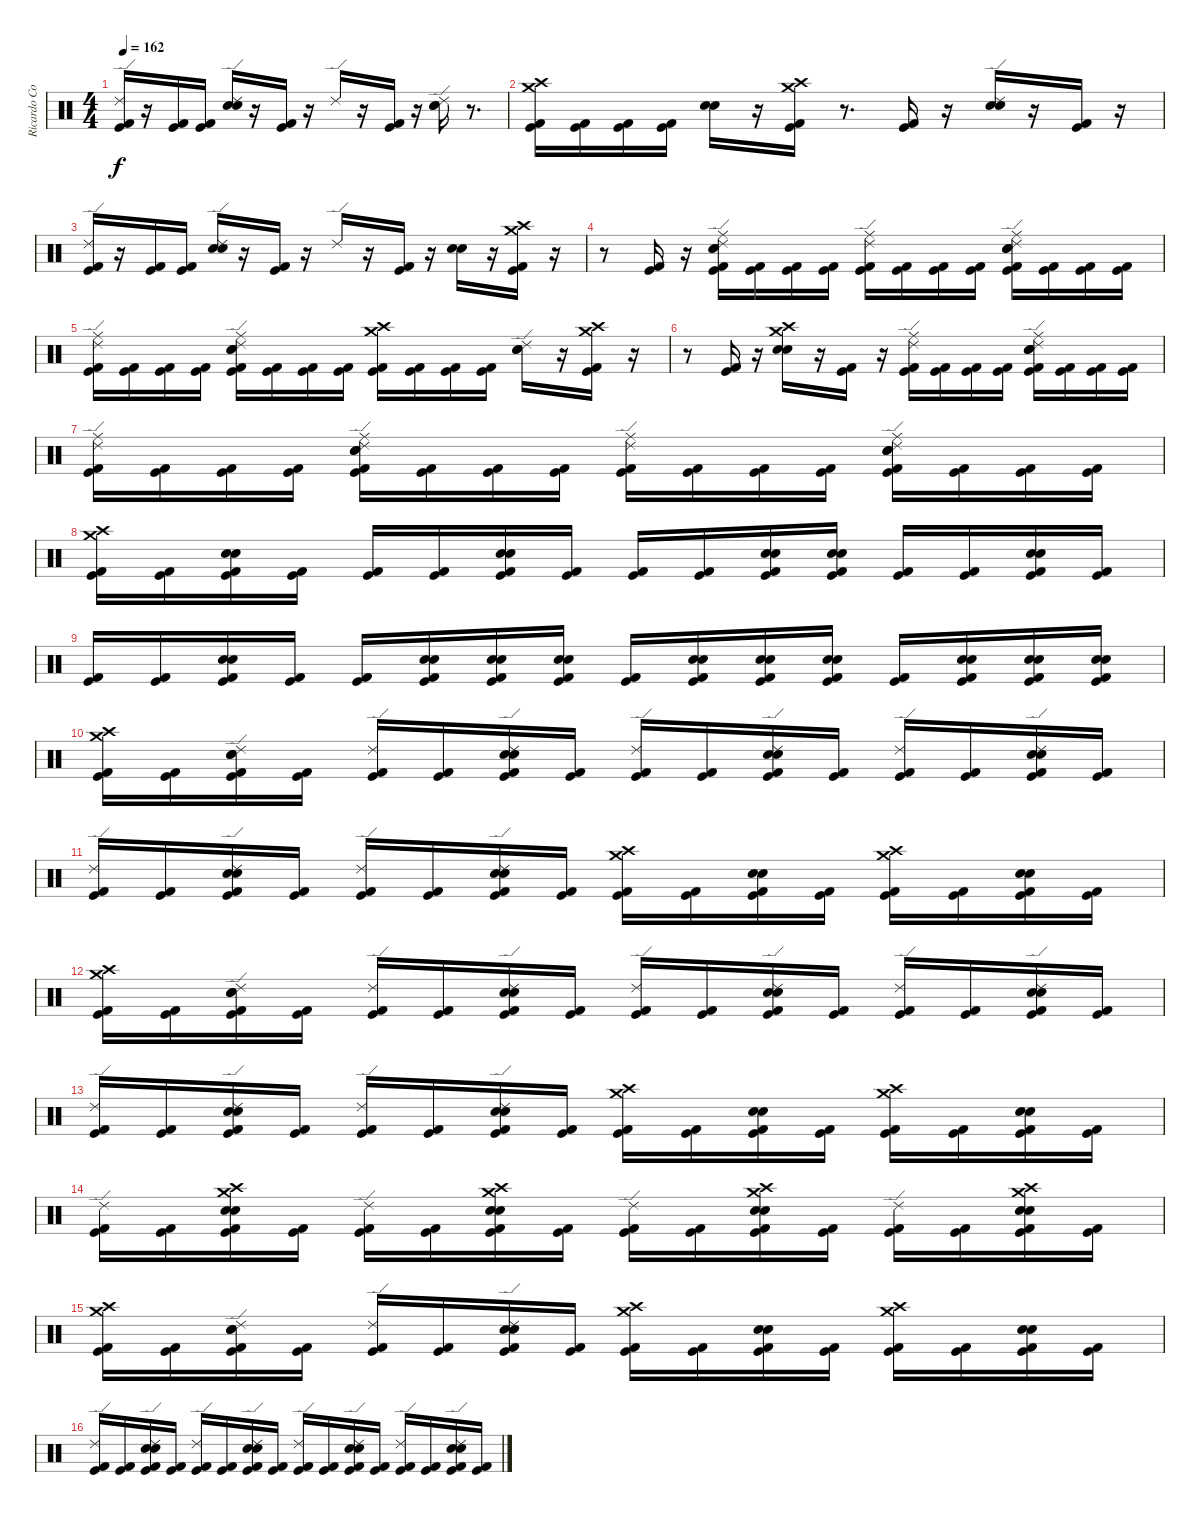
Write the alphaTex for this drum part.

\track ("Ricardo Confessori" "Ricardo Co") {instrument percussion}
\staff {score}
\articulation defaults
\ts (4 4)
\tempo 162
\clef neutral
\ks c
("Ride (edge) 2" "Kick (hit) 2" "Kick (hit)").16{dy f} r.16 ("Kick (hit) 2" "Kick (hit)").16 ("Kick (hit) 2" "Kick (hit)").16 ("Ride (edge) 2" "Electric Snare (hit)" "Snare (hit) 2").16 r.16 ("Kick (hit) 2" "Kick (hit)").16 r.16 "Ride (edge) 2".16 r.16 ("Kick (hit) 2" "Kick (hit)").16 r.16 ("Ride (edge) 2" "Electric Snare (hit)" "Snare (hit) 2").16 r.8{d} |
("Crash high (hit)" "Crash medium (hit)" "Kick (hit) 2" "Kick (hit)").16 ("Kick (hit) 2" "Kick (hit)").16 ("Kick (hit) 2" "Kick (hit)").16 ("Kick (hit) 2" "Kick (hit)").16 ("Electric Snare (hit)" "Snare (hit) 2").16 r.16 ("Crash high (hit)" "Crash medium (hit)" "Kick (hit) 2" "Kick (hit)").16 r.8{d} ("Kick (hit) 2" "Kick (hit)").16 r.16 ("Ride (edge) 2" "Snare (hit) 2" "Electric Snare (hit)").16 r.16 ("Kick (hit) 2" "Kick (hit)").16 r.16 |
("Ride (edge) 2" "Kick (hit) 2" "Kick (hit)").16 r.16 ("Kick (hit) 2" "Kick (hit)").16 ("Kick (hit) 2" "Kick (hit)").16 ("Ride (edge) 2" "Electric Snare (hit)" "Snare (hit) 2").16 r.16 ("Kick (hit)" "Kick (hit) 2").16 r.16 "Ride (edge) 2".16 r.16 ("Kick (hit) 2" "Kick (hit)").16 r.16 ("Electric Snare (hit)" "Snare (hit) 2").16 r.16 ("Crash high (hit)" "Crash medium (hit)" "Kick (hit) 2" "Kick (hit)").16 r.16 |
r.8 ("Kick (hit) 2" "Kick (hit)").16 r.16 ("Ride (middle)" "Ride (edge) 2" "Snare (hit) 2" "Electric Snare (hit)" "Kick (hit) 2" "Kick (hit)").16 ("Kick (hit) 2" "Kick (hit)").16 ("Kick (hit) 2" "Kick (hit)").16 ("Kick (hit) 2" "Kick (hit)").16 ("Ride (middle)" "Ride (edge) 2" "Kick (hit) 2" "Kick (hit)").16 ("Kick (hit) 2" "Kick (hit)").16 ("Kick (hit) 2" "Kick (hit)").16 ("Kick (hit) 2" "Kick (hit)").16 ("Ride (middle)" "Electric Snare (hit)" "Snare (hit) 2" "Ride (edge) 2" "Kick (hit) 2" "Kick (hit)").16 ("Kick (hit) 2" "Kick (hit)").16 ("Kick (hit) 2" "Kick (hit)").16 ("Kick (hit) 2" "Kick (hit)").16 |
("Ride (middle)" "Ride (edge) 2" "Kick (hit) 2" "Kick (hit)").16 ("Kick (hit) 2" "Kick (hit)").16 ("Kick (hit) 2" "Kick (hit)").16 ("Kick (hit) 2" "Kick (hit)").16 ("Ride (middle)" "Electric Snare (hit)" "Snare (hit) 2" "Ride (edge) 2" "Kick (hit) 2" "Kick (hit)").16 ("Kick (hit) 2" "Kick (hit)").16 ("Kick (hit) 2" "Kick (hit)").16 ("Kick (hit) 2" "Kick (hit)").16 ("Crash medium (hit)" "Crash high (hit)" "Kick (hit) 2" "Kick (hit)").16 ("Kick (hit) 2" "Kick (hit)").16 ("Kick (hit) 2" "Kick (hit)").16 ("Kick (hit) 2" "Kick (hit)").16 ("Electric Snare (hit)" "Snare (hit) 2" "Ride (edge) 2").16 r.16 ("Crash high (hit)" "Crash medium (hit)" "Kick (hit) 2" "Kick (hit)").16 r.16 |
r.8 ("Kick (hit) 2" "Kick (hit)").16 r.16 ("Crash high (hit)" "Crash medium (hit)" "Snare (hit) 2" "Electric Snare (hit)").16 r.16 ("Kick (hit) 2" "Kick (hit)").16 r.16 ("Ride (middle)" "Ride (edge) 2" "Kick (hit) 2" "Kick (hit)").16 ("Kick (hit) 2" "Kick (hit)").16 ("Kick (hit) 2" "Kick (hit)").16 ("Kick (hit) 2" "Kick (hit)").16 ("Ride (middle)" "Electric Snare (hit)" "Snare (hit) 2" "Ride (edge) 2" "Kick (hit) 2" "Kick (hit)").16 ("Kick (hit) 2" "Kick (hit)").16 ("Kick (hit) 2" "Kick (hit)").16 ("Kick (hit) 2" "Kick (hit)").16 |
("Ride (middle)" "Ride (edge) 2" "Kick (hit) 2" "Kick (hit)").16 ("Kick (hit) 2" "Kick (hit)").16 ("Kick (hit) 2" "Kick (hit)").16 ("Kick (hit) 2" "Kick (hit)").16 ("Ride (middle)" "Electric Snare (hit)" "Snare (hit) 2" "Ride (edge) 2" "Kick (hit) 2" "Kick (hit)").16 ("Kick (hit) 2" "Kick (hit)").16 ("Kick (hit) 2" "Kick (hit)").16 ("Kick (hit) 2" "Kick (hit)").16 ("Ride (middle)" "Ride (edge) 2" "Kick (hit) 2" "Kick (hit)").16 ("Kick (hit) 2" "Kick (hit)").16 ("Kick (hit) 2" "Kick (hit)").16 ("Kick (hit) 2" "Kick (hit)").16 ("Ride (middle)" "Electric Snare (hit)" "Snare (hit) 2" "Ride (edge) 2" "Kick (hit) 2" "Kick (hit)").16 ("Kick (hit) 2" "Kick (hit)").16 ("Kick (hit) 2" "Kick (hit)").16 ("Kick (hit) 2" "Kick (hit)").16 |
("Crash medium (hit)" "Crash high (hit)" "Kick (hit) 2" "Kick (hit)").16 ("Kick (hit) 2" "Kick (hit)").16 ("Electric Snare (hit)" "Snare (hit) 2" "Kick (hit) 2" "Kick (hit)").16 ("Kick (hit) 2" "Kick (hit)").16 ("Kick (hit) 2" "Kick (hit)").16 ("Kick (hit) 2" "Kick (hit)").16 ("Electric Snare (hit)" "Snare (hit) 2" "Kick (hit) 2" "Kick (hit)").16 ("Kick (hit) 2" "Kick (hit)").16 ("Kick (hit) 2" "Kick (hit)").16 ("Kick (hit) 2" "Kick (hit)").16 ("Electric Snare (hit)" "Snare (hit) 2" "Kick (hit) 2" "Kick (hit)").16 ("Electric Snare (hit)" "Snare (hit) 2" "Kick (hit) 2" "Kick (hit)").16 ("Kick (hit) 2" "Kick (hit)").16 ("Kick (hit) 2" "Kick (hit)").16 ("Electric Snare (hit)" "Snare (hit) 2" "Kick (hit) 2" "Kick (hit)").16 ("Kick (hit) 2" "Kick (hit)").16 |
("Kick (hit) 2" "Kick (hit)").16 ("Kick (hit) 2" "Kick (hit)").16 ("Electric Snare (hit)" "Snare (hit) 2" "Kick (hit) 2" "Kick (hit)").16 ("Kick (hit) 2" "Kick (hit)").16 ("Kick (hit) 2" "Kick (hit)").16 ("Electric Snare (hit)" "Snare (hit) 2" "Kick (hit) 2" "Kick (hit)").16 ("Electric Snare (hit)" "Snare (hit) 2" "Kick (hit) 2" "Kick (hit)").16 ("Electric Snare (hit)" "Snare (hit) 2" "Kick (hit) 2" "Kick (hit)").16 ("Kick (hit) 2" "Kick (hit)").16 ("Snare (hit) 2" "Electric Snare (hit)" "Kick (hit) 2" "Kick (hit)").16 ("Electric Snare (hit)" "Snare (hit) 2" "Kick (hit) 2" "Kick (hit)").16 ("Electric Snare (hit)" "Snare (hit) 2" "Kick (hit) 2" "Kick (hit)").16 ("Kick (hit) 2" "Kick (hit)").16 ("Electric Snare (hit)" "Snare (hit) 2" "Kick (hit) 2" "Kick (hit)").16 ("Electric Snare (hit)" "Snare (hit) 2" "Kick (hit) 2" "Kick (hit)").16 ("Electric Snare (hit)" "Snare (hit) 2" "Kick (hit) 2" "Kick (hit)").16 |
("Crash high (hit)" "Crash medium (hit)" "Kick (hit) 2" "Kick (hit)").16 ("Kick (hit) 2" "Kick (hit)").16 ("Ride (edge) 2" "Electric Snare (hit)" "Snare (hit) 2" "Kick (hit) 2" "Kick (hit)").16 ("Kick (hit) 2" "Kick (hit)").16 ("Ride (edge) 2" "Kick (hit) 2" "Kick (hit)").16 ("Kick (hit) 2" "Kick (hit)").16 ("Ride (edge) 2" "Electric Snare (hit)" "Snare (hit) 2" "Kick (hit) 2" "Kick (hit)").16 ("Kick (hit) 2" "Kick (hit)").16 ("Ride (edge) 2" "Kick (hit) 2" "Kick (hit)").16 ("Kick (hit) 2" "Kick (hit)").16 ("Ride (edge) 2" "Electric Snare (hit)" "Snare (hit) 2" "Kick (hit) 2" "Kick (hit)").16 ("Kick (hit) 2" "Kick (hit)").16 ("Ride (edge) 2" "Kick (hit) 2" "Kick (hit)").16 ("Kick (hit) 2" "Kick (hit)").16 ("Ride (edge) 2" "Electric Snare (hit)" "Snare (hit) 2" "Kick (hit) 2" "Kick (hit)").16 ("Kick (hit) 2" "Kick (hit)").16 |
("Ride (edge) 2" "Kick (hit) 2" "Kick (hit)").16 ("Kick (hit) 2" "Kick (hit)").16 ("Ride (edge) 2" "Electric Snare (hit)" "Snare (hit) 2" "Kick (hit) 2" "Kick (hit)").16 ("Kick (hit) 2" "Kick (hit)").16 ("Ride (edge) 2" "Kick (hit) 2" "Kick (hit)").16 ("Kick (hit) 2" "Kick (hit)").16 ("Ride (edge) 2" "Electric Snare (hit)" "Snare (hit) 2" "Kick (hit) 2" "Kick (hit)").16 ("Kick (hit) 2" "Kick (hit)").16 ("Crash high (hit)" "Crash medium (hit)" "Kick (hit) 2" "Kick (hit)").16 ("Kick (hit) 2" "Kick (hit)").16 ("Electric Snare (hit)" "Snare (hit) 2" "Kick (hit) 2" "Kick (hit)").16 ("Kick (hit) 2" "Kick (hit)").16 ("Crash high (hit)" "Crash medium (hit)" "Kick (hit) 2" "Kick (hit)").16 ("Kick (hit) 2" "Kick (hit)").16 ("Snare (hit) 2" "Electric Snare (hit)" "Kick (hit) 2" "Kick (hit)").16 ("Kick (hit) 2" "Kick (hit)").16 |
("Crash medium (hit)" "Crash high (hit)" "Kick (hit) 2" "Kick (hit)").16 ("Kick (hit) 2" "Kick (hit)").16 ("Ride (edge) 2" "Electric Snare (hit)" "Snare (hit) 2" "Kick (hit) 2" "Kick (hit)").16 ("Kick (hit) 2" "Kick (hit)").16 ("Ride (edge) 2" "Kick (hit) 2" "Kick (hit)").16 ("Kick (hit) 2" "Kick (hit)").16 ("Ride (edge) 2" "Electric Snare (hit)" "Snare (hit) 2" "Kick (hit) 2" "Kick (hit)").16 ("Kick (hit) 2" "Kick (hit)").16 ("Ride (edge) 2" "Kick (hit) 2" "Kick (hit)").16 ("Kick (hit) 2" "Kick (hit)").16 ("Ride (edge) 2" "Electric Snare (hit)" "Snare (hit) 2" "Kick (hit) 2" "Kick (hit)").16 ("Kick (hit) 2" "Kick (hit)").16 ("Ride (edge) 2" "Kick (hit) 2" "Kick (hit)").16 ("Kick (hit) 2" "Kick (hit)").16 ("Ride (edge) 2" "Electric Snare (hit)" "Snare (hit) 2" "Kick (hit) 2" "Kick (hit)").16 ("Kick (hit) 2" "Kick (hit)").16 |
("Ride (edge) 2" "Kick (hit) 2" "Kick (hit)").16 ("Kick (hit) 2" "Kick (hit)").16 ("Ride (edge) 2" "Electric Snare (hit)" "Snare (hit) 2" "Kick (hit) 2" "Kick (hit)").16 ("Kick (hit) 2" "Kick (hit)").16 ("Ride (edge) 2" "Kick (hit) 2" "Kick (hit)").16 ("Kick (hit) 2" "Kick (hit)").16 ("Ride (edge) 2" "Electric Snare (hit)" "Snare (hit) 2" "Kick (hit) 2" "Kick (hit)").16 ("Kick (hit) 2" "Kick (hit)").16 ("Crash high (hit)" "Crash medium (hit)" "Kick (hit) 2" "Kick (hit)").16 ("Kick (hit) 2" "Kick (hit)").16 ("Electric Snare (hit)" "Snare (hit) 2" "Kick (hit) 2" "Kick (hit)").16 ("Kick (hit) 2" "Kick (hit)").16 ("Crash high (hit)" "Crash medium (hit)" "Kick (hit) 2" "Kick (hit)").16 ("Kick (hit) 2" "Kick (hit)").16 ("Electric Snare (hit)" "Snare (hit) 2" "Kick (hit) 2" "Kick (hit)").16 ("Kick (hit) 2" "Kick (hit)").16 |
("Ride (edge) 2" "Kick (hit) 2" "Kick (hit)").16 ("Kick (hit) 2" "Kick (hit)").16 ("Crash high (hit)" "Crash medium (hit)" "Electric Snare (hit)" "Snare (hit) 2" "Kick (hit) 2" "Kick (hit)").16 ("Kick (hit) 2" "Kick (hit)").16 ("Ride (edge) 2" "Kick (hit) 2" "Kick (hit)").16 ("Kick (hit) 2" "Kick (hit)").16 ("Crash high (hit)" "Crash medium (hit)" "Electric Snare (hit)" "Snare (hit) 2" "Kick (hit) 2" "Kick (hit)").16 ("Kick (hit) 2" "Kick (hit)").16 ("Ride (edge) 2" "Kick (hit) 2" "Kick (hit)").16 ("Kick (hit) 2" "Kick (hit)").16 ("Crash high (hit)" "Crash medium (hit)" "Electric Snare (hit)" "Snare (hit) 2" "Kick (hit) 2" "Kick (hit)").16 ("Kick (hit) 2" "Kick (hit)").16 ("Ride (edge) 2" "Kick (hit) 2" "Kick (hit)").16 ("Kick (hit) 2" "Kick (hit)").16 ("Crash medium (hit)" "Crash high (hit)" "Electric Snare (hit)" "Snare (hit) 2" "Kick (hit) 2" "Kick (hit)").16 ("Kick (hit) 2" "Kick (hit)").16 |
("Crash medium (hit)" "Crash high (hit)" "Kick (hit) 2" "Kick (hit)").16 ("Kick (hit) 2" "Kick (hit)").16 ("Ride (edge) 2" "Electric Snare (hit)" "Snare (hit) 2" "Kick (hit) 2" "Kick (hit)").16 ("Kick (hit) 2" "Kick (hit)").16 ("Ride (edge) 2" "Kick (hit) 2" "Kick (hit)").16 ("Kick (hit) 2" "Kick (hit)").16 ("Ride (edge) 2" "Electric Snare (hit)" "Snare (hit) 2" "Kick (hit) 2" "Kick (hit)").16 ("Kick (hit) 2" "Kick (hit)").16 ("Crash high (hit)" "Crash medium (hit)" "Kick (hit) 2" "Kick (hit)").16 ("Kick (hit) 2" "Kick (hit)").16 ("Electric Snare (hit)" "Snare (hit) 2" "Kick (hit) 2" "Kick (hit)").16 ("Kick (hit) 2" "Kick (hit)").16 ("Crash high (hit)" "Crash medium (hit)" "Kick (hit) 2" "Kick (hit)").16 ("Kick (hit) 2" "Kick (hit)").16 ("Electric Snare (hit)" "Snare (hit) 2" "Kick (hit) 2" "Kick (hit)").16 ("Kick (hit) 2" "Kick (hit)").16 |
("Ride (edge) 2" "Kick (hit) 2" "Kick (hit)").16 ("Kick (hit) 2" "Kick (hit)").16 ("Ride (edge) 2" "Electric Snare (hit)" "Snare (hit) 2" "Kick (hit) 2" "Kick (hit)").16 ("Kick (hit) 2" "Kick (hit)").16 ("Ride (edge) 2" "Kick (hit) 2" "Kick (hit)").16 ("Kick (hit) 2" "Kick (hit)").16 ("Ride (edge) 2" "Electric Snare (hit)" "Snare (hit) 2" "Kick (hit) 2" "Kick (hit)").16 ("Kick (hit) 2" "Kick (hit)").16 ("Ride (edge) 2" "Kick (hit) 2" "Kick (hit)").16 ("Kick (hit) 2" "Kick (hit)").16 ("Ride (edge) 2" "Electric Snare (hit)" "Snare (hit) 2" "Kick (hit) 2" "Kick (hit)").16 ("Kick (hit) 2" "Kick (hit)").16 ("Ride (edge) 2" "Kick (hit) 2" "Kick (hit)").16 ("Kick (hit) 2" "Kick (hit)").16 ("Ride (edge) 2" "Electric Snare (hit)" "Snare (hit) 2" "Kick (hit) 2" "Kick (hit)").16 ("Kick (hit) 2" "Kick (hit)").16
